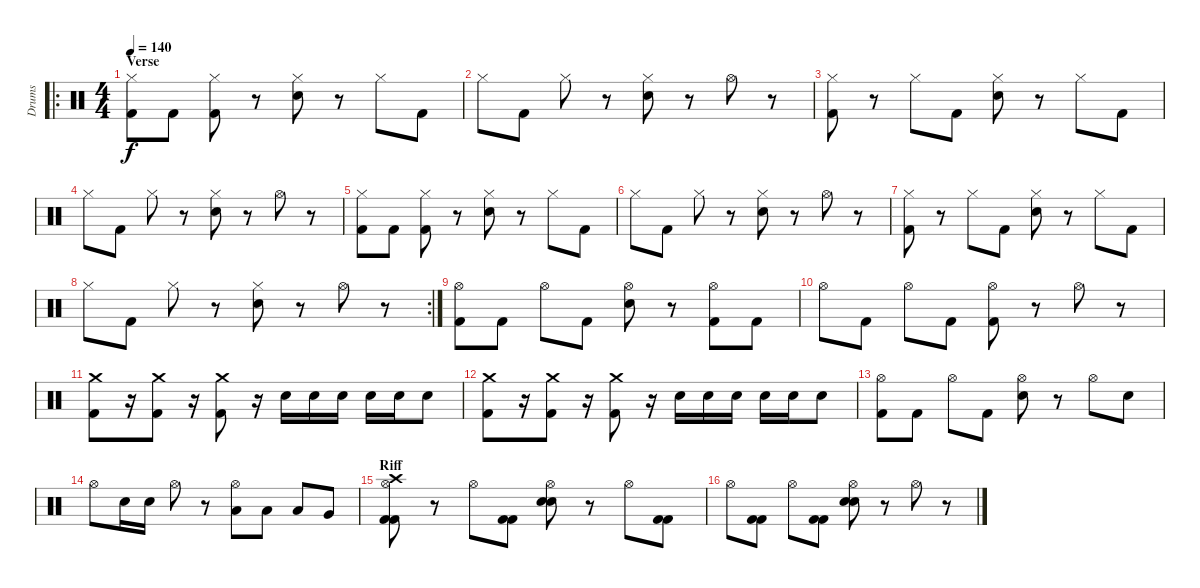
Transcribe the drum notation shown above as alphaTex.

\track ("Drums" "Drums") {instrument percussion}
\staff {score}
\articulation defaults
\ro
\ts (4 4)
\section ("" "Verse")
\tempo 140
\clef neutral
\ks c
("Hi-Hat (closed)" "Kick (hit) 2").8{dy f} "Kick (hit) 2".8 ("Hi-Hat (closed)" "Kick (hit) 2").8 r.8 ("Hi-Hat (closed)" "Electric Snare (hit)").8 r.8 "Hi-Hat (closed)".8 "Kick (hit) 2".8 |
"Hi-Hat (closed)".8 "Kick (hit) 2".8 "Hi-Hat (closed)".8 r.8 ("Hi-Hat (closed)" "Electric Snare (hit)").8 r.8 "Hi-Hat (open)".8 r.8 |
("Hi-Hat (closed)" "Kick (hit) 2").8 r.8 "Hi-Hat (closed)".8 "Kick (hit) 2".8 ("Hi-Hat (closed)" "Electric Snare (hit)").8 r.8 "Hi-Hat (closed)".8 "Kick (hit) 2".8 |
"Hi-Hat (closed)".8 "Kick (hit) 2".8 "Hi-Hat (closed)".8 r.8 ("Hi-Hat (closed)" "Electric Snare (hit)").8 r.8 "Hi-Hat (open)".8 r.8 |
("Hi-Hat (closed)" "Kick (hit) 2").8 "Kick (hit) 2".8 ("Hi-Hat (closed)" "Kick (hit) 2").8 r.8 ("Hi-Hat (closed)" "Electric Snare (hit)").8 r.8 "Hi-Hat (closed)".8 "Kick (hit) 2".8 |
"Hi-Hat (closed)".8 "Kick (hit) 2".8 "Hi-Hat (closed)".8 r.8 ("Hi-Hat (closed)" "Electric Snare (hit)").8 r.8 "Hi-Hat (open)".8 r.8 |
("Hi-Hat (closed)" "Kick (hit) 2").8 r.8 "Hi-Hat (closed)".8 "Kick (hit) 2".8 ("Hi-Hat (closed)" "Electric Snare (hit)").8 r.8 "Hi-Hat (closed)".8 "Kick (hit) 2".8 |
\rc 2 "Hi-Hat (closed)".8 "Kick (hit) 2".8 "Hi-Hat (closed)".8
r.8 ("Hi-Hat (closed)" "Electric Snare (hit)").8 r.8 "Hi-Hat (open)".8 r.8 |
("Hi-Hat (open)" "Kick (hit) 2").8 "Kick (hit) 2".8 "Hi-Hat (open)".8 "Kick (hit) 2".8 ("Hi-Hat (open)" "Electric Snare (hit)").8 r.8 ("Hi-Hat (open)" "Kick (hit) 2").8 "Kick (hit) 2".8 |
"Hi-Hat (open)".8 "Kick (hit) 2".8 "Hi-Hat (open)".8 "Kick (hit) 2".8 ("Hi-Hat (open)" "Kick (hit) 2").8 r.8 "Hi-Hat (open)".8 r.8 |
("Crash medium (hit)" "Kick (hit) 2").8 r.16 ("Crash medium (hit)" "Kick (hit) 2").8 r.16 ("Crash medium (hit)" "Kick (hit) 2").8 r.16 "Electric Snare (hit)".16 "Electric Snare (hit)".16 "Electric Snare (hit)".16 "Electric Snare (hit)".16 "Electric Snare (hit)".16 "Electric Snare (hit)".8 |
("Crash medium (hit)" "Kick (hit) 2").8 r.16 ("Crash medium (hit)" "Kick (hit) 2").8 r.16 ("Crash medium (hit)" "Kick (hit) 2").8 r.16 "Electric Snare (hit)".16 "Electric Snare (hit)".16 "Electric Snare (hit)".16 "Electric Snare (hit)".16 "Electric Snare (hit)".16 "Electric Snare (hit)".8 |
("Hi-Hat (open)" "Kick (hit) 2").8 "Kick (hit) 2".8 "Hi-Hat (open)".8 "Kick (hit) 2".8 ("Hi-Hat (open)" "Electric Snare (hit)").8 r.8 "Hi-Hat (open)".8 "Electric Snare (hit)".8 |
"Hi-Hat (open)".8 "Electric Snare (hit)".16 "Electric Snare (hit)".16 "Hi-Hat (open)".8 r.8 ("Hi-Hat (open)" "Low Floor Tom (hit)").8 "Low Floor Tom (hit)".8 "Low Tom (hit)".8 "Very Low Tom (hit)".8 |
\section ("" "Riff")
("Crash high (hit)" "Hi-Hat (open)" "Kick (hit) 2" "Kick (hit) 2").8 r.8 "Hi-Hat (open)".8 ("Kick (hit) 2" "Kick (hit) 2").8 ("Hi-Hat (open)" "Electric Snare (hit)" "Electric Snare (hit)").8 r.8 "Hi-Hat (open)".8 ("Kick (hit) 2" "Kick (hit) 2").8 |
"Hi-Hat (open)".8 ("Kick (hit) 2" "Kick (hit) 2").8 "Hi-Hat (open)".8 ("Kick (hit) 2" "Kick (hit) 2").8 ("Hi-Hat (open)" "Electric Snare (hit)" "Electric Snare (hit)").8 r.8 "Hi-Hat (open)".8 r.8
